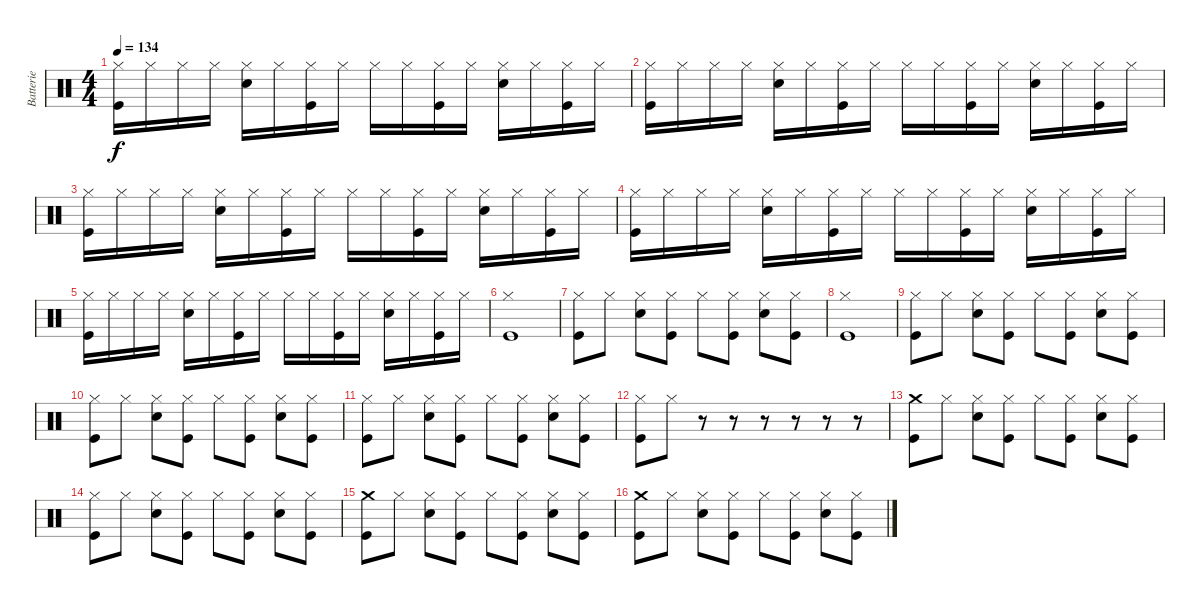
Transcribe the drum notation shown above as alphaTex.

\track ("Batterie" "Batterie") {instrument percussion}
\staff {score}
\articulation defaults
\ts (4 4)
\tempo 134
\clef neutral
\ks c
("Kick (hit)" "Hi-Hat (closed)").16{dy f} "Hi-Hat (closed)".16 "Hi-Hat (closed)".16 "Hi-Hat (closed)".16 ("Snare (hit) 2" "Hi-Hat (closed)").16 "Hi-Hat (closed)".16 ("Kick (hit)" "Hi-Hat (closed)").16 "Hi-Hat (closed)".16 "Hi-Hat (closed)".16 "Hi-Hat (closed)".16 ("Kick (hit)" "Hi-Hat (closed)").16 "Hi-Hat (closed)".16 ("Snare (hit) 2" "Hi-Hat (closed)").16 "Hi-Hat (closed)".16 ("Kick (hit)" "Hi-Hat (closed)").16 "Hi-Hat (closed)".16 |
("Kick (hit)" "Hi-Hat (closed)").16 "Hi-Hat (closed)".16 "Hi-Hat (closed)".16 "Hi-Hat (closed)".16 ("Snare (hit) 2" "Hi-Hat (closed)").16 "Hi-Hat (closed)".16 ("Kick (hit)" "Hi-Hat (closed)").16 "Hi-Hat (closed)".16 "Hi-Hat (closed)".16 "Hi-Hat (closed)".16 ("Kick (hit)" "Hi-Hat (closed)").16 "Hi-Hat (closed)".16 ("Snare (hit) 2" "Hi-Hat (closed)").16 "Hi-Hat (closed)".16 ("Kick (hit)" "Hi-Hat (closed)").16 "Hi-Hat (closed)".16 |
("Kick (hit)" "Hi-Hat (closed)").16 "Hi-Hat (closed)".16 "Hi-Hat (closed)".16 "Hi-Hat (closed)".16 ("Snare (hit) 2" "Hi-Hat (closed)").16 "Hi-Hat (closed)".16 ("Kick (hit)" "Hi-Hat (closed)").16 "Hi-Hat (closed)".16 "Hi-Hat (closed)".16 "Hi-Hat (closed)".16 ("Kick (hit)" "Hi-Hat (closed)").16 "Hi-Hat (closed)".16 ("Snare (hit) 2" "Hi-Hat (closed)").16 "Hi-Hat (closed)".16 ("Kick (hit)" "Hi-Hat (closed)").16 "Hi-Hat (closed)".16 |
("Kick (hit)" "Hi-Hat (closed)").16 "Hi-Hat (closed)".16 "Hi-Hat (closed)".16 "Hi-Hat (closed)".16 ("Snare (hit) 2" "Hi-Hat (closed)").16 "Hi-Hat (closed)".16 ("Kick (hit)" "Hi-Hat (closed)").16 "Hi-Hat (closed)".16 "Hi-Hat (closed)".16 "Hi-Hat (closed)".16 ("Kick (hit)" "Hi-Hat (closed)").16 "Hi-Hat (closed)".16 ("Snare (hit) 2" "Hi-Hat (closed)").16 "Hi-Hat (closed)".16 ("Kick (hit)" "Hi-Hat (closed)").16 "Hi-Hat (closed)".16 |
("Kick (hit)" "Hi-Hat (closed)").16 "Hi-Hat (closed)".16 "Hi-Hat (closed)".16 "Hi-Hat (closed)".16 ("Snare (hit) 2" "Hi-Hat (closed)").16 "Hi-Hat (closed)".16 ("Kick (hit)" "Hi-Hat (closed)").16 "Hi-Hat (closed)".16 "Hi-Hat (closed)".16 "Hi-Hat (closed)".16 ("Kick (hit)" "Hi-Hat (closed)").16 "Hi-Hat (closed)".16 ("Snare (hit) 2" "Hi-Hat (closed)").16 "Hi-Hat (closed)".16 ("Kick (hit)" "Hi-Hat (closed)").16 "Hi-Hat (closed)".16 |
("Kick (hit)" "Hi-Hat (closed)").1 |
("Kick (hit)" "Hi-Hat (closed)").8 "Hi-Hat (closed)".8 ("Snare (hit) 2" "Hi-Hat (closed)").8 ("Kick (hit)" "Hi-Hat (closed)").8 "Hi-Hat (closed)".8 ("Kick (hit)" "Hi-Hat (closed)").8 ("Snare (hit) 2" "Hi-Hat (closed)").8 ("Kick (hit)" "Hi-Hat (closed)").8 |
("Kick (hit)" "Hi-Hat (closed)").1 |
("Kick (hit)" "Hi-Hat (closed)").8 "Hi-Hat (closed)".8 ("Snare (hit) 2" "Hi-Hat (closed)").8 ("Kick (hit)" "Hi-Hat (closed)").8 "Hi-Hat (closed)".8 ("Kick (hit)" "Hi-Hat (closed)").8 ("Snare (hit) 2" "Hi-Hat (closed)").8 ("Kick (hit)" "Hi-Hat (closed)").8 |
("Kick (hit)" "Hi-Hat (closed)").8 "Hi-Hat (closed)".8 ("Snare (hit) 2" "Hi-Hat (closed)").8 ("Kick (hit)" "Hi-Hat (closed)").8 "Hi-Hat (closed)".8 ("Kick (hit)" "Hi-Hat (closed)").8 ("Snare (hit) 2" "Hi-Hat (closed)").8 ("Kick (hit)" "Hi-Hat (closed)").8 |
("Kick (hit)" "Hi-Hat (closed)").8 "Hi-Hat (closed)".8 ("Snare (hit) 2" "Hi-Hat (closed)").8 ("Kick (hit)" "Hi-Hat (closed)").8 "Hi-Hat (closed)".8 ("Kick (hit)" "Hi-Hat (closed)").8 ("Snare (hit) 2" "Hi-Hat (closed)").8 ("Kick (hit)" "Hi-Hat (closed)").8 |
("Kick (hit)" "Hi-Hat (closed)").8 "Hi-Hat (closed)".8 r.8 r.8 r.8 r.8 r.8 r.8 |
("Kick (hit)" "Crash medium (hit)").8 "Hi-Hat (closed)".8 ("Snare (hit) 2" "Hi-Hat (closed)").8 ("Kick (hit)" "Hi-Hat (closed)").8 "Hi-Hat (closed)".8 ("Kick (hit)" "Hi-Hat (closed)").8 ("Snare (hit) 2" "Hi-Hat (closed)").8 ("Kick (hit)" "Hi-Hat (closed)").8 |
("Kick (hit)" "Hi-Hat (closed)").8 "Hi-Hat (closed)".8 ("Snare (hit) 2" "Hi-Hat (closed)").8 ("Kick (hit)" "Hi-Hat (closed)").8 "Hi-Hat (closed)".8 ("Kick (hit)" "Hi-Hat (closed)").8 ("Snare (hit) 2" "Hi-Hat (closed)").8 ("Kick (hit)" "Hi-Hat (closed)").8 |
("Kick (hit)" "Crash medium (hit)").8 "Hi-Hat (closed)".8 ("Snare (hit) 2" "Hi-Hat (closed)").8 ("Kick (hit)" "Hi-Hat (closed)").8 "Hi-Hat (closed)".8 ("Kick (hit)" "Hi-Hat (closed)").8 ("Snare (hit) 2" "Hi-Hat (closed)").8 ("Kick (hit)" "Hi-Hat (closed)").8 |
("Kick (hit)" "Crash medium (hit)").8 "Hi-Hat (closed)".8 ("Snare (hit) 2" "Hi-Hat (closed)").8 ("Kick (hit)" "Hi-Hat (closed)").8 "Hi-Hat (closed)".8 ("Kick (hit)" "Hi-Hat (closed)").8 ("Snare (hit) 2" "Hi-Hat (closed)").8 ("Kick (hit)" "Hi-Hat (closed)").8
